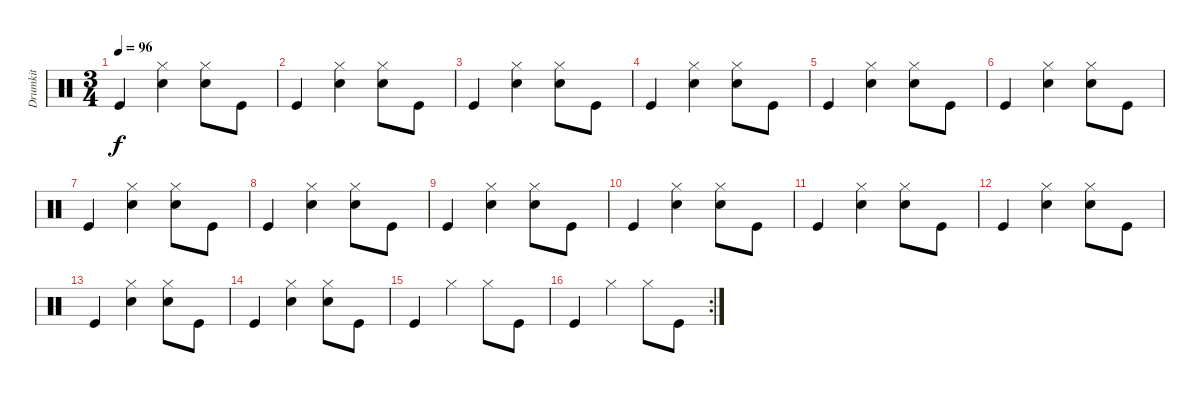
\track ("Drumkit" "Drumkit") {instrument percussion}
\staff {score}
\articulation defaults
\ts (3 4)
\tempo 96
\clef neutral
\ks c "Kick (hit)".4{dy f}
("Hi-Hat (closed)" "Snare (hit) 2").4 ("Hi-Hat (closed)" "Snare (hit) 2").8 "Kick (hit)".8 |
"Kick (hit)".4 ("Hi-Hat (closed)" "Snare (hit) 2").4 ("Hi-Hat (closed)" "Snare (hit) 2").8 "Kick (hit)".8 |
"Kick (hit)".4 ("Hi-Hat (closed)" "Snare (hit) 2").4 ("Hi-Hat (closed)" "Snare (hit) 2").8 "Kick (hit)".8 |
"Kick (hit)".4 ("Hi-Hat (closed)" "Snare (hit) 2").4 ("Hi-Hat (closed)" "Snare (hit) 2").8 "Kick (hit)".8 |
"Kick (hit)".4 ("Hi-Hat (closed)" "Snare (hit) 2").4 ("Hi-Hat (closed)" "Snare (hit) 2").8 "Kick (hit)".8 |
"Kick (hit)".4 ("Hi-Hat (closed)" "Snare (hit) 2").4 ("Hi-Hat (closed)" "Snare (hit) 2").8 "Kick (hit)".8 |
"Kick (hit)".4 ("Hi-Hat (closed)" "Snare (hit) 2").4 ("Hi-Hat (closed)" "Snare (hit) 2").8 "Kick (hit)".8 |
"Kick (hit)".4 ("Hi-Hat (closed)" "Snare (hit) 2").4 ("Hi-Hat (closed)" "Snare (hit) 2").8 "Kick (hit)".8 |
"Kick (hit)".4 ("Hi-Hat (closed)" "Snare (hit) 2").4 ("Hi-Hat (closed)" "Snare (hit) 2").8 "Kick (hit)".8 |
"Kick (hit)".4 ("Hi-Hat (closed)" "Snare (hit) 2").4 ("Hi-Hat (closed)" "Snare (hit) 2").8 "Kick (hit)".8 |
"Kick (hit)".4 ("Hi-Hat (closed)" "Snare (hit) 2").4 ("Hi-Hat (closed)" "Snare (hit) 2").8 "Kick (hit)".8 |
"Kick (hit)".4 ("Hi-Hat (closed)" "Snare (hit) 2").4 ("Hi-Hat (closed)" "Snare (hit) 2").8 "Kick (hit)".8 |
"Kick (hit)".4 ("Hi-Hat (closed)" "Snare (hit) 2").4 ("Hi-Hat (closed)" "Snare (hit) 2").8 "Kick (hit)".8 |
"Kick (hit)".4 ("Hi-Hat (closed)" "Snare (hit) 2").4 ("Hi-Hat (closed)" "Snare (hit) 2").8 "Kick (hit)".8 |
"Kick (hit)".4 "Hi-Hat (closed)".4 "Hi-Hat (closed)".8 "Kick (hit)".8 |
\rc 2 "Kick (hit)".4 "Hi-Hat (closed)".4 "Hi-Hat (closed)".8 "Kick (hit)".8
